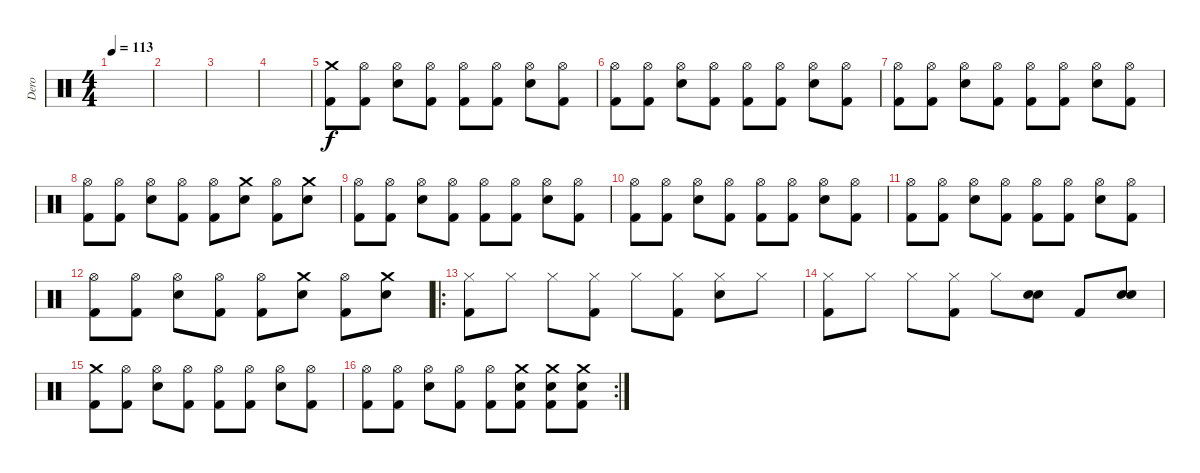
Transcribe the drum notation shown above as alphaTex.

\track ("Dero" "Dero") {instrument percussion}
\staff {score}
\articulation defaults
\ts (4 4)
\tempo 113
\clef neutral
\ks c
|
|
|
|
("Crash medium (hit)" "Kick (hit) 2").8 ("Hi-Hat (open)" "Kick (hit) 2").8 ("Hi-Hat (open)" "Electric Snare (hit)").8 ("Hi-Hat (open)" "Kick (hit) 2").8 ("Hi-Hat (open)" "Kick (hit) 2").8 ("Hi-Hat (open)" "Kick (hit) 2").8 ("Hi-Hat (open)" "Electric Snare (hit)").8 ("Hi-Hat (open)" "Kick (hit) 2").8 |
("Hi-Hat (open)" "Kick (hit) 2").8 ("Hi-Hat (open)" "Kick (hit) 2").8 ("Hi-Hat (open)" "Electric Snare (hit)").8 ("Hi-Hat (open)" "Kick (hit) 2").8 ("Hi-Hat (open)" "Kick (hit) 2").8 ("Hi-Hat (open)" "Kick (hit) 2").8 ("Hi-Hat (open)" "Electric Snare (hit)").8 ("Hi-Hat (open)" "Kick (hit) 2").8 |
("Hi-Hat (open)" "Kick (hit) 2").8 ("Hi-Hat (open)" "Kick (hit) 2").8 ("Hi-Hat (open)" "Electric Snare (hit)").8 ("Hi-Hat (open)" "Kick (hit) 2").8 ("Hi-Hat (open)" "Kick (hit) 2").8 ("Hi-Hat (open)" "Kick (hit) 2").8 ("Hi-Hat (open)" "Electric Snare (hit)").8 ("Hi-Hat (open)" "Kick (hit) 2").8 |
("Hi-Hat (open)" "Kick (hit) 2").8 ("Hi-Hat (open)" "Kick (hit) 2").8 ("Hi-Hat (open)" "Electric Snare (hit)").8 ("Hi-Hat (open)" "Kick (hit) 2").8 ("Hi-Hat (open)" "Kick (hit) 2").8 ("Crash medium (hit)" "Electric Snare (hit)").8 ("Hi-Hat (open)" "Kick (hit) 2").8 ("Crash medium (hit)" "Electric Snare (hit)").8 |
("Hi-Hat (open)" "Kick (hit) 2").8 ("Hi-Hat (open)" "Kick (hit) 2").8 ("Hi-Hat (open)" "Electric Snare (hit)").8 ("Hi-Hat (open)" "Kick (hit) 2").8 ("Hi-Hat (open)" "Kick (hit) 2").8 ("Hi-Hat (open)" "Kick (hit) 2").8 ("Hi-Hat (open)" "Electric Snare (hit)").8 ("Hi-Hat (open)" "Kick (hit) 2").8 |
("Hi-Hat (open)" "Kick (hit) 2").8 ("Hi-Hat (open)" "Kick (hit) 2").8 ("Hi-Hat (open)" "Electric Snare (hit)").8 ("Hi-Hat (open)" "Kick (hit) 2").8 ("Hi-Hat (open)" "Kick (hit) 2").8 ("Hi-Hat (open)" "Kick (hit) 2").8 ("Hi-Hat (open)" "Electric Snare (hit)").8 ("Hi-Hat (open)" "Kick (hit) 2").8 |
("Hi-Hat (open)" "Kick (hit) 2").8 ("Hi-Hat (open)" "Kick (hit) 2").8 ("Hi-Hat (open)" "Electric Snare (hit)").8 ("Hi-Hat (open)" "Kick (hit) 2").8 ("Hi-Hat (open)" "Kick (hit) 2").8 ("Hi-Hat (open)" "Kick (hit) 2").8 ("Hi-Hat (open)" "Electric Snare (hit)").8 ("Hi-Hat (open)" "Kick (hit) 2").8 |
("Hi-Hat (open)" "Kick (hit) 2").8 ("Hi-Hat (open)" "Kick (hit) 2").8 ("Hi-Hat (open)" "Electric Snare (hit)").8 ("Hi-Hat (open)" "Kick (hit) 2").8 ("Hi-Hat (open)" "Kick (hit) 2").8 ("Crash medium (hit)" "Electric Snare (hit)").8 ("Hi-Hat (open)" "Kick (hit) 2").8 ("Crash medium (hit)" "Electric Snare (hit)").8 |
\ro
("Hi-Hat (closed)" "Kick (hit) 2").8 "Hi-Hat (closed)".8 "Hi-Hat (closed)".8 ("Hi-Hat (closed)" "Kick (hit) 2").8 "Hi-Hat (closed)".8 ("Hi-Hat (closed)" "Kick (hit) 2").8 ("Hi-Hat (closed)" "Electric Snare (hit)").8 "Hi-Hat (closed)".8 |
("Hi-Hat (closed)" "Kick (hit) 2").8 "Hi-Hat (closed)".8 "Hi-Hat (closed)".8 ("Hi-Hat (closed)" "Kick (hit) 2").8 "Hi-Hat (closed)".8 ("Electric Snare (hit)" "Electric Snare (hit)").8 "Kick (hit) 2".8 ("Electric Snare (hit)" "Electric Snare (hit)").8 |
("Crash medium (hit)" "Kick (hit) 2").8 ("Hi-Hat (open)" "Kick (hit) 2").8 ("Hi-Hat (open)" "Electric Snare (hit)").8 ("Hi-Hat (open)" "Kick (hit) 2").8 ("Hi-Hat (open)" "Kick (hit) 2").8 ("Hi-Hat (open)" "Kick (hit) 2").8 ("Hi-Hat (open)" "Electric Snare (hit)").8 ("Hi-Hat (open)" "Kick (hit) 2").8 |
\rc 2
("Hi-Hat (open)" "Kick (hit) 2").8 ("Hi-Hat (open)" "Kick (hit) 2").8 ("Hi-Hat (open)" "Electric Snare (hit)").8 ("Hi-Hat (open)" "Kick (hit) 2").8 ("Hi-Hat (open)" "Kick (hit) 2").8 ("Crash medium (hit)" "Electric Snare (hit)" "Kick (hit) 2").8 ("Crash medium (hit)" "Electric Snare (hit)" "Kick (hit) 2").8 ("Crash medium (hit)" "Electric Snare (hit)" "Kick (hit) 2").8
